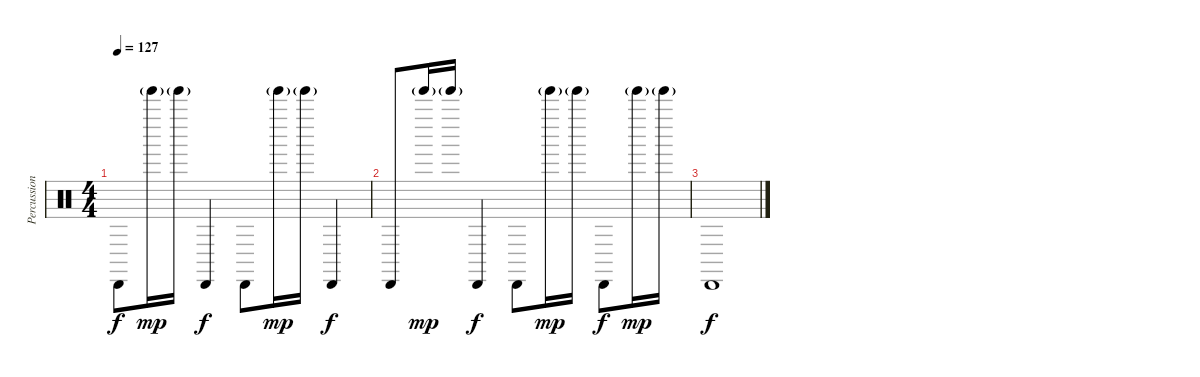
\track ("Percussion" "Percussion") {instrument percussion}
\staff {score}
\articulation defaults
\ts (4 4)
\tempo 127
\clef neutral
\ks c "Cabasa (hit)".8{dy f} "Tinkle Bell (hit)"{g}.16{dy mp} "Tinkle Bell (hit)"{g}.16 "Cabasa (hit)".4{dy f} "Cabasa (hit)".8 "Tinkle Bell (hit)"{g}.16{dy mp} "Tinkle Bell (hit)"{g}.16 "Cabasa (hit)".4{dy f}
|
"Cabasa (hit)".8{beam Up} "Tinkle Bell (hit)"{g}.16{dy mp beam Up} "Tinkle Bell (hit)"{g}.16{beam Up} "Cabasa (hit)".4{dy f} "Cabasa (hit)".8 "Tinkle Bell (hit)"{g}.16{dy mp} "Tinkle Bell (hit)"{g}.16 "Cabasa (hit)".8{dy f} "Tinkle Bell (hit)"{g}.16{dy mp} "Tinkle Bell (hit)"{g}.16 |
"Cabasa (hit)".1{dy f}
